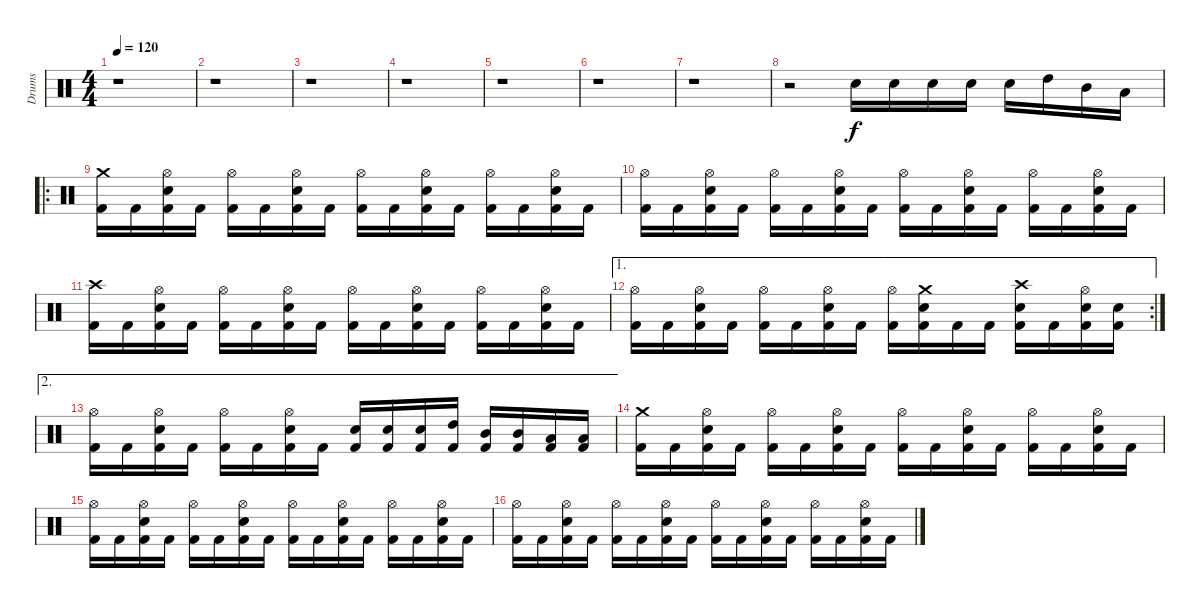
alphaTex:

\track ("Drums" "Drums") {instrument percussion}
\staff {score}
\articulation defaults
\ts (4 4)
\tempo 120
\clef neutral
\ks c
r.1{dy f} |
r.1 |
r.1 |
r.1 |
r.1 |
r.1 |
r.1 |
r.2 "Electric Snare (hit)".16 "Electric Snare (hit)".16 "Electric Snare (hit)".16 "Electric Snare (hit)".16 "Electric Snare (hit)".16 "High Tom (hit)".16 "Mid Tom (hit)".16 "Low Tom (hit)".16 |
\ro
("Kick (hit) 2" "Crash medium (hit)").16 "Kick (hit) 2".16 ("Kick (hit) 2" "Electric Snare (hit)" "Hi-Hat (open)").16 "Kick (hit) 2".16 ("Kick (hit) 2" "Hi-Hat (open)").16 "Kick (hit) 2".16 ("Kick (hit) 2" "Electric Snare (hit)" "Hi-Hat (open)").16 "Kick (hit) 2".16 ("Kick (hit) 2" "Hi-Hat (open)").16 "Kick (hit) 2".16 ("Kick (hit) 2" "Electric Snare (hit)" "Hi-Hat (open)").16 "Kick (hit) 2".16 ("Kick (hit) 2" "Hi-Hat (open)").16 "Kick (hit) 2".16 ("Kick (hit) 2" "Electric Snare (hit)" "Hi-Hat (open)").16 "Kick (hit) 2".16 |
("Kick (hit) 2" "Hi-Hat (open)").16 "Kick (hit) 2".16 ("Kick (hit) 2" "Electric Snare (hit)" "Hi-Hat (open)").16 "Kick (hit) 2".16 ("Kick (hit) 2" "Hi-Hat (open)").16 "Kick (hit) 2".16 ("Kick (hit) 2" "Electric Snare (hit)" "Hi-Hat (open)").16 "Kick (hit) 2".16 ("Kick (hit) 2" "Hi-Hat (open)").16 "Kick (hit) 2".16 ("Kick (hit) 2" "Electric Snare (hit)" "Hi-Hat (open)").16 "Kick (hit) 2".16 ("Kick (hit) 2" "Hi-Hat (open)").16 "Kick (hit) 2".16 ("Kick (hit) 2" "Electric Snare (hit)" "Hi-Hat (open)").16 "Kick (hit) 2".16 |
("Kick (hit) 2" "Crash high (hit)").16 "Kick (hit) 2".16 ("Kick (hit) 2" "Electric Snare (hit)" "Hi-Hat (open)").16 "Kick (hit) 2".16 ("Kick (hit) 2" "Hi-Hat (open)").16 "Kick (hit) 2".16 ("Kick (hit) 2" "Electric Snare (hit)" "Hi-Hat (open)").16 "Kick (hit) 2".16 ("Kick (hit) 2" "Hi-Hat (open)").16 "Kick (hit) 2".16 ("Kick (hit) 2" "Electric Snare (hit)" "Hi-Hat (open)").16 "Kick (hit) 2".16 ("Kick (hit) 2" "Hi-Hat (open)").16 "Kick (hit) 2".16 ("Kick (hit) 2" "Electric Snare (hit)" "Hi-Hat (open)").16 "Kick (hit) 2".16 |
\ae 1
\rc 2
("Kick (hit) 2" "Hi-Hat (open)").16 "Kick (hit) 2".16 ("Kick (hit) 2" "Electric Snare (hit)" "Hi-Hat (open)").16 "Kick (hit) 2".16 ("Kick (hit) 2" "Hi-Hat (open)").16 "Kick (hit) 2".16 ("Kick (hit) 2" "Electric Snare (hit)" "Hi-Hat (open)").16 "Kick (hit) 2".16 ("Kick (hit) 2" "Hi-Hat (open)").16 ("Kick (hit) 2" "Electric Snare (hit)" "Crash medium (hit)").16 "Kick (hit) 2".16 "Kick (hit) 2".16 ("Kick (hit) 2" "Electric Snare (hit)" "Crash high (hit)").16 "Kick (hit) 2".16 ("Kick (hit) 2" "Electric Snare (hit)" "Hi-Hat (open)").16 ("Kick (hit) 2" "Electric Snare (hit)").16 |
\ae 2
("Kick (hit) 2" "Hi-Hat (open)").16 "Kick (hit) 2".16 ("Kick (hit) 2" "Electric Snare (hit)" "Hi-Hat (open)").16 "Kick (hit) 2".16 ("Kick (hit) 2" "Hi-Hat (open)").16 "Kick (hit) 2".16 ("Kick (hit) 2" "Electric Snare (hit)" "Hi-Hat (open)").16 "Kick (hit) 2".16 ("Kick (hit) 2" "Electric Snare (hit)").16 ("Kick (hit) 2" "Electric Snare (hit)").16 ("Kick (hit) 2" "Electric Snare (hit)").16 ("Kick (hit) 2" "High Tom (hit)").16 ("Kick (hit) 2" "Mid Tom (hit)").16 ("Kick (hit) 2" "Mid Tom (hit)").16 ("Kick (hit) 2" "Low Tom (hit)").16 ("Kick (hit) 2" "Low Tom (hit)").16 |
("Kick (hit) 2" "Crash medium (hit)").16 "Kick (hit) 2".16 ("Kick (hit) 2" "Electric Snare (hit)" "Hi-Hat (open)").16 "Kick (hit) 2".16 ("Kick (hit) 2" "Hi-Hat (open)").16 "Kick (hit) 2".16 ("Kick (hit) 2" "Electric Snare (hit)" "Hi-Hat (open)").16 "Kick (hit) 2".16 ("Kick (hit) 2" "Hi-Hat (open)").16 "Kick (hit) 2".16 ("Kick (hit) 2" "Electric Snare (hit)" "Hi-Hat (open)").16 "Kick (hit) 2".16 ("Kick (hit) 2" "Hi-Hat (open)").16 "Kick (hit) 2".16 ("Kick (hit) 2" "Electric Snare (hit)" "Hi-Hat (open)").16 "Kick (hit) 2".16 |
("Kick (hit) 2" "Hi-Hat (open)").16 "Kick (hit) 2".16 ("Kick (hit) 2" "Electric Snare (hit)" "Hi-Hat (open)").16 "Kick (hit) 2".16 ("Kick (hit) 2" "Hi-Hat (open)").16 "Kick (hit) 2".16 ("Kick (hit) 2" "Electric Snare (hit)" "Hi-Hat (open)").16 "Kick (hit) 2".16 ("Kick (hit) 2" "Hi-Hat (open)").16 "Kick (hit) 2".16 ("Kick (hit) 2" "Electric Snare (hit)" "Hi-Hat (open)").16 "Kick (hit) 2".16 ("Kick (hit) 2" "Hi-Hat (open)").16 "Kick (hit) 2".16 ("Kick (hit) 2" "Electric Snare (hit)" "Hi-Hat (open)").16 "Kick (hit) 2".16 |
("Kick (hit) 2" "Hi-Hat (open)").16 "Kick (hit) 2".16 ("Kick (hit) 2" "Electric Snare (hit)" "Hi-Hat (open)").16 "Kick (hit) 2".16 ("Kick (hit) 2" "Hi-Hat (open)").16 "Kick (hit) 2".16 ("Kick (hit) 2" "Electric Snare (hit)" "Hi-Hat (open)").16 "Kick (hit) 2".16 ("Kick (hit) 2" "Hi-Hat (open)").16 "Kick (hit) 2".16 ("Kick (hit) 2" "Electric Snare (hit)" "Hi-Hat (open)").16 "Kick (hit) 2".16 ("Kick (hit) 2" "Hi-Hat (open)").16 "Kick (hit) 2".16 ("Kick (hit) 2" "Electric Snare (hit)" "Hi-Hat (open)").16 "Kick (hit) 2".16
